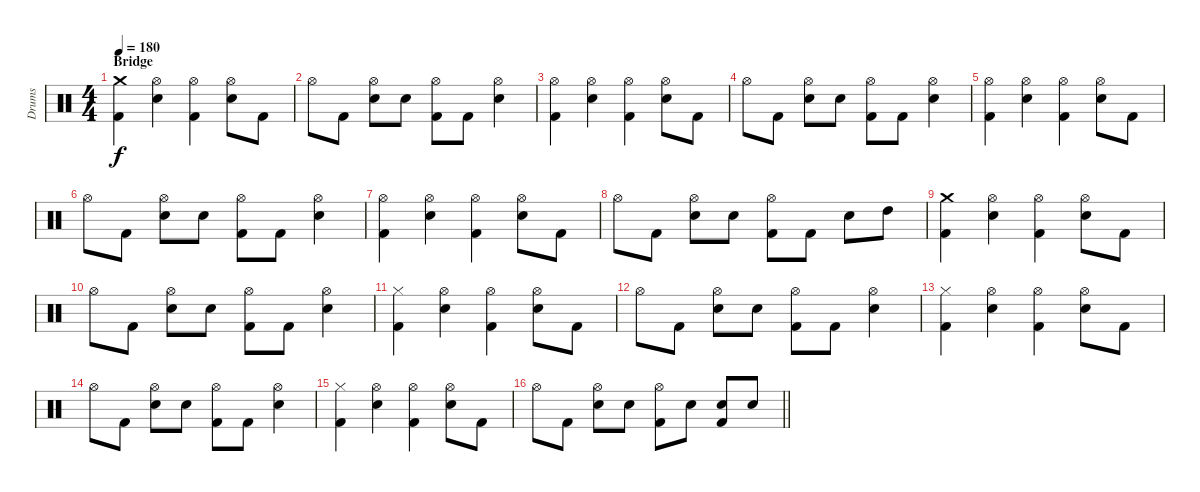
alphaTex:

\track ("Drums" "Drums") {instrument percussion}
\staff {score}
\articulation defaults
\ts (4 4)
\section ("" "Bridge")
\tempo 180
\clef neutral
\ks c
("Crash medium (hit)" "Kick (hit) 2").4{dy f} ("Hi-Hat (open)" "Snare (hit) 2").4 ("Hi-Hat (open)" "Kick (hit) 2").4 ("Hi-Hat (open)" "Snare (hit) 2").8 "Kick (hit) 2".8 |
"Hi-Hat (open)".8 "Kick (hit) 2".8 ("Hi-Hat (open)" "Snare (hit) 2").8 "Snare (hit) 2".8 ("Hi-Hat (open)" "Kick (hit) 2").8 "Kick (hit) 2".8 ("Hi-Hat (open)" "Snare (hit) 2").4 |
("Hi-Hat (open)" "Kick (hit) 2").4 ("Hi-Hat (open)" "Snare (hit) 2").4 ("Hi-Hat (open)" "Kick (hit) 2").4 ("Hi-Hat (open)" "Snare (hit) 2").8 "Kick (hit) 2".8 |
"Hi-Hat (open)".8 "Kick (hit) 2".8 ("Hi-Hat (open)" "Snare (hit) 2").8 "Snare (hit) 2".8 ("Hi-Hat (open)" "Kick (hit) 2").8 "Kick (hit) 2".8 ("Hi-Hat (open)" "Snare (hit) 2").4 |
("Hi-Hat (open)" "Kick (hit) 2").4 ("Hi-Hat (open)" "Snare (hit) 2").4 ("Hi-Hat (open)" "Kick (hit) 2").4 ("Hi-Hat (open)" "Snare (hit) 2").8 "Kick (hit) 2".8 |
"Hi-Hat (open)".8 "Kick (hit) 2".8 ("Hi-Hat (open)" "Snare (hit) 2").8 "Snare (hit) 2".8 ("Hi-Hat (open)" "Kick (hit) 2").8 "Kick (hit) 2".8 ("Hi-Hat (open)" "Snare (hit) 2").4 |
("Hi-Hat (open)" "Kick (hit) 2").4 ("Hi-Hat (open)" "Snare (hit) 2").4 ("Hi-Hat (open)" "Kick (hit) 2").4 ("Hi-Hat (open)" "Snare (hit) 2").8 "Kick (hit) 2".8 |
"Hi-Hat (open)".8 "Kick (hit) 2".8 ("Hi-Hat (open)" "Snare (hit) 2").8 "Snare (hit) 2".8 ("Hi-Hat (open)" "Kick (hit) 2").8 "Kick (hit) 2".8 "Snare (hit) 2".8 "High Tom (hit)".8 |
("Crash medium (hit)" "Kick (hit) 2").4 ("Hi-Hat (open)" "Snare (hit) 2").4 ("Hi-Hat (open)" "Kick (hit) 2").4 ("Hi-Hat (open)" "Snare (hit) 2").8 "Kick (hit) 2".8 |
"Hi-Hat (open)".8 "Kick (hit) 2".8 ("Hi-Hat (open)" "Snare (hit) 2").8 "Snare (hit) 2".8 ("Hi-Hat (open)" "Kick (hit) 2").8 "Kick (hit) 2".8 ("Hi-Hat (open)" "Snare (hit) 2").4 |
("Hi-Hat (closed)" "Kick (hit) 2").4 ("Hi-Hat (open)" "Snare (hit) 2").4 ("Hi-Hat (open)" "Kick (hit) 2").4 ("Hi-Hat (open)" "Snare (hit) 2").8 "Kick (hit) 2".8 |
"Hi-Hat (open)".8 "Kick (hit) 2".8 ("Hi-Hat (open)" "Snare (hit) 2").8 "Snare (hit) 2".8 ("Hi-Hat (open)" "Kick (hit) 2").8 "Kick (hit) 2".8 ("Hi-Hat (open)" "Snare (hit) 2").4 |
("Hi-Hat (closed)" "Kick (hit) 2").4 ("Hi-Hat (open)" "Snare (hit) 2").4 ("Hi-Hat (open)" "Kick (hit) 2").4 ("Hi-Hat (open)" "Snare (hit) 2").8 "Kick (hit) 2".8 |
"Hi-Hat (open)".8 "Kick (hit) 2".8 ("Hi-Hat (open)" "Snare (hit) 2").8 "Snare (hit) 2".8 ("Hi-Hat (open)" "Kick (hit) 2").8 "Kick (hit) 2".8 ("Hi-Hat (open)" "Snare (hit) 2").4 |
("Hi-Hat (closed)" "Kick (hit) 2").4 ("Hi-Hat (open)" "Snare (hit) 2").4 ("Hi-Hat (open)" "Kick (hit) 2").4 ("Hi-Hat (open)" "Snare (hit) 2").8 "Kick (hit) 2".8 |
\barLineRight lightlight "Hi-Hat (open)".8 "Kick (hit) 2".8
("Hi-Hat (open)" "Snare (hit) 2").8 "Snare (hit) 2".8 ("Hi-Hat (open)" "Kick (hit) 2").8 "Snare (hit) 2".8 ("Snare (hit) 2" "Kick (hit) 2").8 "Snare (hit) 2".8
